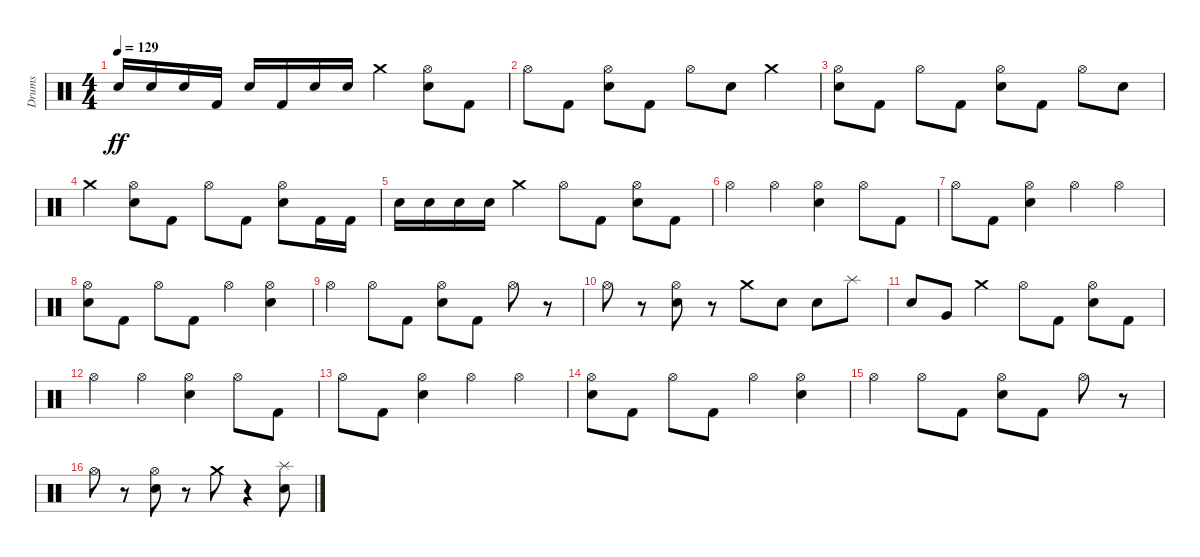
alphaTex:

\track ("Drums" "Drums") {instrument percussion}
\staff {score}
\articulation defaults
\ts (4 4)
\tempo 129
\clef neutral
\ks c "Electric Snare (hit)".16{dy ff} "Electric Snare (hit)".16 "Electric Snare (hit)".16 "Kick (hit) 2".16 "Electric Snare (hit)".16 "Kick (hit) 2".16 "Electric Snare (hit)".16 "Electric Snare (hit)".16 "Crash medium (hit)".4
("Electric Snare (hit)" "Hi-Hat (open)").8 "Kick (hit) 2".8 |
"Hi-Hat (open)".8 "Kick (hit) 2".8 ("Electric Snare (hit)" "Hi-Hat (open)").8 "Kick (hit) 2".8 "Hi-Hat (open)".8 "Electric Snare (hit)".8 "Crash medium (hit)".4 |
("Electric Snare (hit)" "Hi-Hat (open)").8 "Kick (hit) 2".8 "Hi-Hat (open)".8 "Kick (hit) 2".8 ("Electric Snare (hit)" "Hi-Hat (open)").8 "Kick (hit) 2".8 "Hi-Hat (open)".8 "Electric Snare (hit)".8 |
"Crash medium (hit)".4 ("Electric Snare (hit)" "Hi-Hat (open)").8 "Kick (hit) 2".8 "Hi-Hat (open)".8 "Kick (hit) 2".8 ("Electric Snare (hit)" "Hi-Hat (open)").8 "Kick (hit) 2".16 "Kick (hit) 2".16 |
"Electric Snare (hit)".16 "Electric Snare (hit)".16 "Electric Snare (hit)".16 "Electric Snare (hit)".16 "Crash medium (hit)".4 "Hi-Hat (open)".8 "Kick (hit) 2".8 ("Electric Snare (hit)" "Hi-Hat (open)").8 "Kick (hit) 2".8 |
"Hi-Hat (open)".4 "Hi-Hat (open)".4 ("Electric Snare (hit)" "Hi-Hat (open)").4 "Hi-Hat (open)".8 "Kick (hit) 2".8 |
"Hi-Hat (open)".8 "Kick (hit) 2".8 ("Electric Snare (hit)" "Hi-Hat (open)").4 "Hi-Hat (open)".4 "Hi-Hat (open)".4 |
("Electric Snare (hit)" "Hi-Hat (open)").8 "Kick (hit) 2".8 "Hi-Hat (open)".8 "Kick (hit) 2".8 "Hi-Hat (open)".4 ("Electric Snare (hit)" "Hi-Hat (open)").4 |
"Hi-Hat (open)".4 "Hi-Hat (open)".8 "Kick (hit) 2".8 ("Electric Snare (hit)" "Hi-Hat (open)").8 "Kick (hit) 2".8 "Hi-Hat (open)".8 r.8 |
"Hi-Hat (open)".8 r.8 ("Electric Snare (hit)" "Hi-Hat (open)").8 r.8 "Crash medium (hit)".8 "Electric Snare (hit)".8 "Electric Snare (hit)".8 "Splash (hit)".8 |
"Electric Snare (hit)".8 "Very Low Tom (hit)".8 "Crash medium (hit)".4 "Hi-Hat (open)".8 "Kick (hit) 2".8 ("Electric Snare (hit)" "Hi-Hat (open)").8 "Kick (hit) 2".8 |
"Hi-Hat (open)".4 "Hi-Hat (open)".4 ("Electric Snare (hit)" "Hi-Hat (open)").4 "Hi-Hat (open)".8 "Kick (hit) 2".8 |
"Hi-Hat (open)".8 "Kick (hit) 2".8 ("Electric Snare (hit)" "Hi-Hat (open)").4 "Hi-Hat (open)".4 "Hi-Hat (open)".4 |
("Electric Snare (hit)" "Hi-Hat (open)").8 "Kick (hit) 2".8 "Hi-Hat (open)".8 "Kick (hit) 2".8 "Hi-Hat (open)".4 ("Electric Snare (hit)" "Hi-Hat (open)").4 |
"Hi-Hat (open)".4 "Hi-Hat (open)".8 "Kick (hit) 2".8 ("Electric Snare (hit)" "Hi-Hat (open)").8 "Kick (hit) 2".8 "Hi-Hat (open)".8 r.8 |
"Hi-Hat (open)".8 r.8 ("Electric Snare (hit)" "Hi-Hat (open)").8 r.8 "Crash medium (hit)".8 r.4 ("Electric Snare (hit)" "Splash (hit)").8
